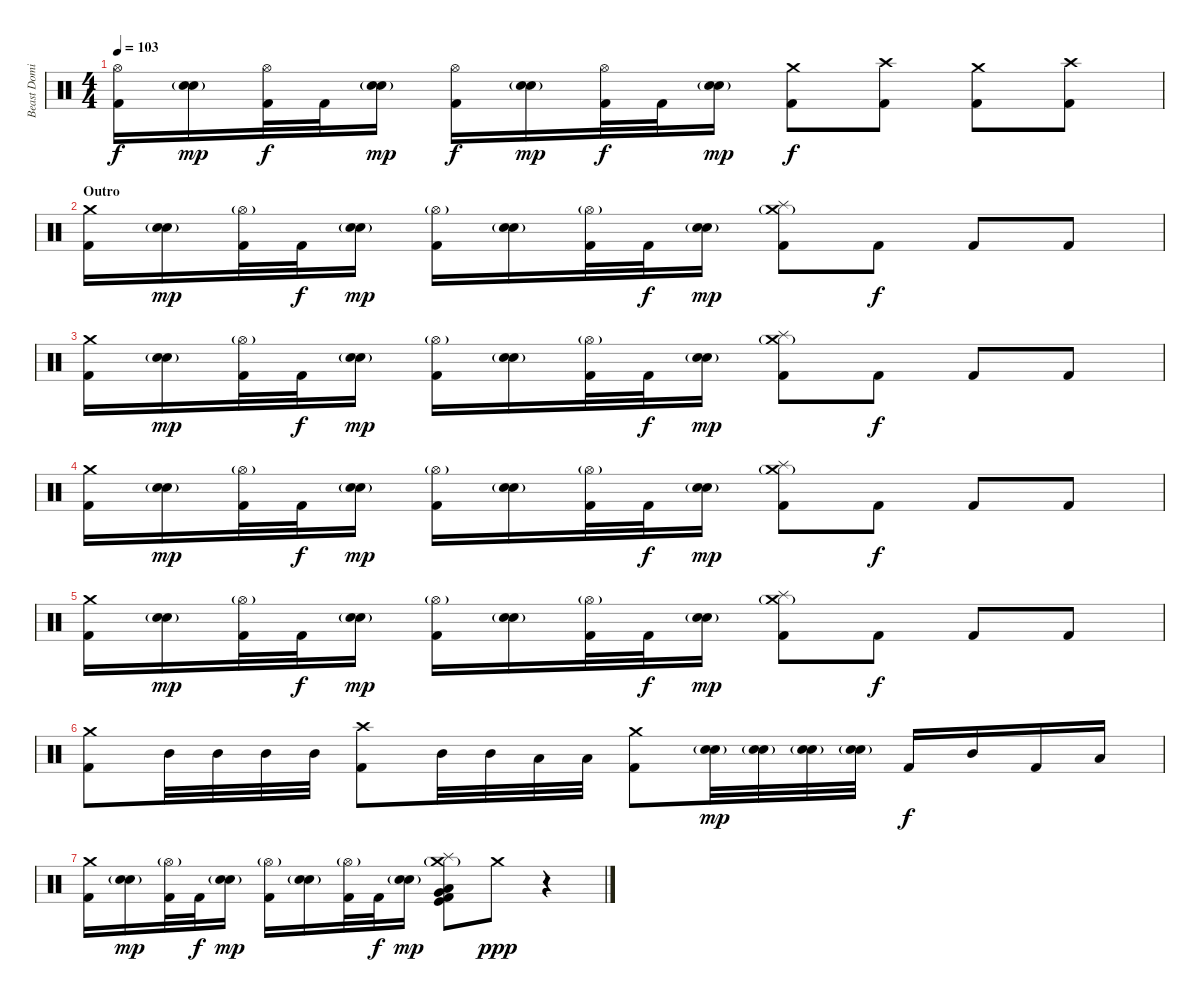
\track ("Beast Dominator" "Beast Domi") {instrument percussion}
\staff {score}
\articulation defaults
\ts (4 4)
\tempo 103
\clef neutral
\ks c
("Hi-Hat (open)" "Kick (hit) 2").16{dy f} ("Electric Snare (hit)"{g} "Snare (hit) 2").16{dy mp} ("Hi-Hat (open)" "Kick (hit) 2").32{dy f} "Kick (hit) 2".32 ("Electric Snare (hit)"{g} "Snare (hit) 2").16{dy mp} ("Hi-Hat (open)" "Kick (hit) 2").16{dy f} ("Electric Snare (hit)"{g} "Snare (hit) 2").16{dy mp} ("Hi-Hat (open)" "Kick (hit) 2").32{dy f} "Kick (hit) 2".32 ("Electric Snare (hit)"{g} "Snare (hit) 2").16{dy mp} ("Crash medium (hit)" "Kick (hit) 2").8{dy f} ("Crash high (hit)" "Kick (hit) 2").8 ("Crash medium (hit)" "Kick (hit) 2").8 ("Crash high (hit)" "Kick (hit) 2").8 |
\section ("" "Outro")
("Crash medium (hit)" "Kick (hit) 2").16 ("Electric Snare (hit)"{g} "Snare (hit) 2").16{dy mp} ("Hi-Hat (open)"{g} "Kick (hit) 2").32 "Kick (hit) 2".32{dy f} ("Electric Snare (hit)"{g} "Snare (hit) 2").16{dy mp} ("Hi-Hat (open)"{g} "Kick (hit) 2").16 ("Electric Snare (hit)"{g} "Snare (hit) 2").16 ("Hi-Hat (open)"{g} "Kick (hit) 2").32 "Kick (hit) 2".32{dy f} ("Electric Snare (hit)"{g} "Snare (hit) 2").16{dy mp} ("Crash medium (hit)"{g} "Splash (hit)" "Kick (hit) 2").8 "Kick (hit) 2".8{dy f} "Kick (hit) 2".8 "Kick (hit) 2".8 |
("Crash medium (hit)" "Kick (hit) 2").16 ("Electric Snare (hit)"{g} "Snare (hit) 2").16{dy mp} ("Hi-Hat (open)"{g} "Kick (hit) 2").32 "Kick (hit) 2".32{dy f} ("Electric Snare (hit)"{g} "Snare (hit) 2").16{dy mp} ("Hi-Hat (open)"{g} "Kick (hit) 2").16 ("Electric Snare (hit)"{g} "Snare (hit) 2").16 ("Hi-Hat (open)"{g} "Kick (hit) 2").32 "Kick (hit) 2".32{dy f} ("Electric Snare (hit)"{g} "Snare (hit) 2").16{dy mp} ("Crash medium (hit)"{g} "Splash (hit)" "Kick (hit) 2").8 "Kick (hit) 2".8{dy f} "Kick (hit) 2".8 "Kick (hit) 2".8 |
("Crash medium (hit)" "Kick (hit) 2").16 ("Electric Snare (hit)"{g} "Snare (hit) 2").16{dy mp} ("Hi-Hat (open)"{g} "Kick (hit) 2").32 "Kick (hit) 2".32{dy f} ("Electric Snare (hit)"{g} "Snare (hit) 2").16{dy mp} ("Hi-Hat (open)"{g} "Kick (hit) 2").16 ("Electric Snare (hit)"{g} "Snare (hit) 2").16 ("Hi-Hat (open)"{g} "Kick (hit) 2").32 "Kick (hit) 2".32{dy f} ("Electric Snare (hit)"{g} "Snare (hit) 2").16{dy mp} ("Crash medium (hit)"{g} "Splash (hit)" "Kick (hit) 2").8 "Kick (hit) 2".8{dy f} "Kick (hit) 2".8 "Kick (hit) 2".8 |
("Crash medium (hit)" "Kick (hit) 2").16 ("Electric Snare (hit)"{g} "Snare (hit) 2").16{dy mp} ("Hi-Hat (open)"{g} "Kick (hit) 2").32 "Kick (hit) 2".32{dy f} ("Electric Snare (hit)"{g} "Snare (hit) 2").16{dy mp} ("Hi-Hat (open)"{g} "Kick (hit) 2").16 ("Electric Snare (hit)"{g} "Snare (hit) 2").16 ("Hi-Hat (open)"{g} "Kick (hit) 2").32 "Kick (hit) 2".32{dy f} ("Electric Snare (hit)"{g} "Snare (hit) 2").16{dy mp} ("Crash medium (hit)"{g} "Splash (hit)" "Kick (hit) 2").8 "Kick (hit) 2".8{dy f} "Kick (hit) 2".8 "Kick (hit) 2".8 |
("Crash medium (hit)" "Kick (hit) 2").8 "Mid Tom (hit)".32 "Mid Tom (hit)".32 "Mid Tom (hit)".32 "Mid Tom (hit)".32 ("Crash high (hit)" "Kick (hit) 2").8 "Mid Tom (hit)".32 "Mid Tom (hit)".32 "Low Tom (hit)".32 "Low Tom (hit)".32 ("Crash medium (hit)" "Kick (hit) 2").8 ("Electric Snare (hit)"{g} "Snare (hit) 2").32{dy mp} ("Electric Snare (hit)"{g} "Snare (hit) 2").32 ("Electric Snare (hit)"{g} "Snare (hit) 2").32 ("Electric Snare (hit)"{g} "Snare (hit) 2").32 "Kick (hit) 2".16{dy f} "Mid Tom (hit)".16 "Kick (hit) 2".16 "Low Tom (hit)".16 |
("Crash medium (hit)" "Kick (hit) 2").16 ("Electric Snare (hit)"{g} "Snare (hit) 2").16{dy mp} ("Hi-Hat (open)"{g} "Kick (hit) 2").32 "Kick (hit) 2".32{dy f} ("Electric Snare (hit)"{g} "Snare (hit) 2").16{dy mp} ("Hi-Hat (open)"{g} "Kick (hit) 2").16 ("Electric Snare (hit)"{g} "Snare (hit) 2").16 ("Hi-Hat (open)"{g} "Kick (hit) 2").32 "Kick (hit) 2".32{dy f} ("Electric Snare (hit)"{g} "Snare (hit) 2").16{dy mp} ("Crash medium (hit)"{g} "Splash (hit)" "Kick (hit)" "Low Tom (hit)" "Very Low Tom (hit)" "Kick (hit) 2").8 "Crash medium (hit)".8{dy ppp} r.4
